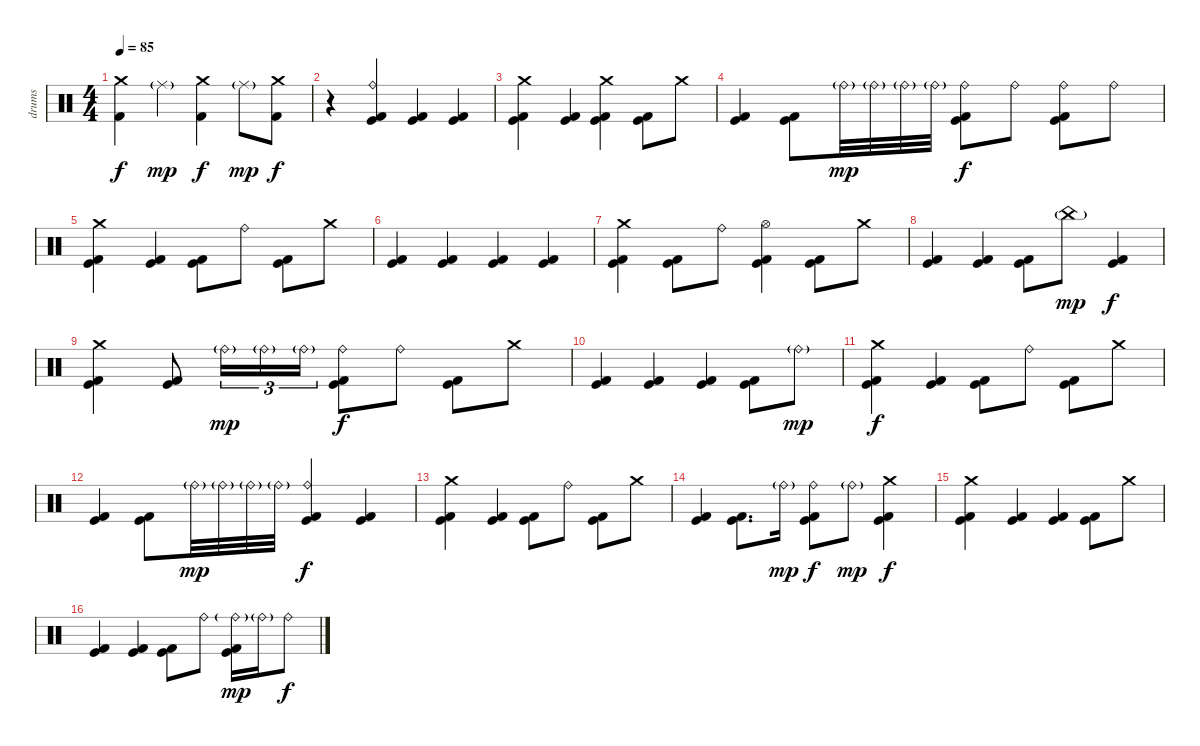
\track ("drums" "drums") {instrument percussion}
\staff {score}
\articulation defaults
\ts (4 4)
\tempo 85
\clef neutral
\ks c
("Crash medium (hit)" "Kick (hit) 2").4{dy f} "Ride (middle)"{g}.4{dy mp} ("Crash medium (hit)" "Kick (hit) 2").4{dy f} "Ride (middle)"{g}.8{dy mp} ("Crash medium (hit)" "Kick (hit) 2").8{dy f} |
r.4 ("Ride (bell)" "Kick (hit)" "Kick (hit) 2").4 ("Kick (hit)" "Kick (hit) 2").4 ("Kick (hit)" "Kick (hit) 2").4 |
("Crash medium (hit)" "Kick (hit)" "Kick (hit) 2").4 ("Kick (hit)" "Kick (hit) 2").4 ("Crash medium (hit)" "Kick (hit)" "Kick (hit) 2").4 ("Kick (hit)" "Kick (hit) 2").8 "Crash medium (hit)".8 |
("Kick (hit)" "Kick (hit) 2").4 ("Kick (hit)" "Kick (hit) 2").8 "Ride (bell)"{g}.32{dy mp} "Ride (bell)"{g}.32 "Ride (bell)"{g}.32 "Ride (bell)"{g}.32 ("Ride (bell)" "Kick (hit)" "Kick (hit) 2").8{dy f} "Ride (bell)".8 ("Ride (bell)" "Kick (hit)" "Kick (hit) 2").8 "Ride (bell)".8 |
("Crash medium (hit)" "Kick (hit)" "Kick (hit) 2").4 ("Kick (hit)" "Kick (hit) 2").4 ("Kick (hit)" "Kick (hit) 2").8 "Ride (bell)".8 ("Kick (hit)" "Kick (hit) 2").8 "Crash medium (hit)".8 |
("Kick (hit)" "Kick (hit) 2").4 ("Kick (hit)" "Kick (hit) 2").4 ("Kick (hit)" "Kick (hit) 2").4 ("Kick (hit)" "Kick (hit) 2").4 |
("Crash medium (hit)" "Kick (hit)" "Kick (hit) 2").4 ("Kick (hit)" "Kick (hit) 2").8 "Ride (bell)".8 ("Hi-Hat (open)" "Kick (hit)" "Kick (hit) 2").4 ("Kick (hit)" "Kick (hit) 2").8 "Crash medium (hit)".8 |
("Kick (hit)" "Kick (hit) 2").4 ("Kick (hit)" "Kick (hit) 2").4 ("Kick (hit)" "Kick (hit) 2").8 "China (hit)"{g}.8{dy mp} ("Kick (hit)" "Kick (hit) 2").4{dy f} |
("Crash medium (hit)" "Kick (hit)" "Kick (hit) 2").4 ("Kick (hit)" "Kick (hit) 2").8{volume 6} "Ride (bell)"{g}.16{tu (3 2) dy mp} "Ride (bell)"{g}.16{tu (3 2)} "Ride (bell)"{g}.16{tu (3 2)} ("Ride (bell)" "Kick (hit)" "Kick (hit) 2").8{dy f} "Ride (bell)".8 ("Kick (hit)" "Kick (hit) 2").8 "Crash medium (hit)".8 |
("Kick (hit)" "Kick (hit) 2").4 ("Kick (hit)" "Kick (hit) 2").4 ("Kick (hit)" "Kick (hit) 2").4 ("Kick (hit)" "Kick (hit) 2").8 "Ride (bell)"{g}.8{dy mp} |
("Crash medium (hit)" "Kick (hit)" "Kick (hit) 2").4{dy f} ("Kick (hit)" "Kick (hit) 2").4 ("Kick (hit)" "Kick (hit) 2").8 "Ride (bell)".8 ("Kick (hit)" "Kick (hit) 2").8 "Crash medium (hit)".8 |
("Kick (hit)" "Kick (hit) 2").4 ("Kick (hit)" "Kick (hit) 2").8 "Ride (bell)"{g}.32{dy mp} "Ride (bell)"{g}.32 "Ride (bell)"{g}.32 "Ride (bell)"{g}.32 ("Ride (bell)" "Kick (hit)" "Kick (hit) 2").4{dy f} ("Kick (hit)" "Kick (hit) 2").4 |
("Crash medium (hit)" "Kick (hit)" "Kick (hit) 2").4{volume 4} ("Kick (hit)" "Kick (hit) 2").4 ("Kick (hit)" "Kick (hit) 2").8{volume 2} "Ride (bell)".8 ("Kick (hit)" "Kick (hit) 2").8 "Crash medium (hit)".8 |
("Kick (hit)" "Kick (hit) 2").4 ("Kick (hit)" "Kick (hit) 2").8{d} "Ride (bell)"{g}.16{dy mp} ("Ride (bell)" "Kick (hit)" "Kick (hit) 2").8{dy f} "Ride (bell)"{g}.8{dy mp} ("Crash medium (hit)" "Kick (hit)" "Kick (hit) 2").4{dy f} |
("Crash medium (hit)" "Kick (hit)" "Kick (hit) 2").4 ("Kick (hit)" "Kick (hit) 2").4 ("Kick (hit)" "Kick (hit) 2").4 ("Kick (hit)" "Kick (hit) 2").8 "Crash medium (hit)".8 |
("Kick (hit)" "Kick (hit) 2").4 ("Kick (hit)" "Kick (hit) 2").4 ("Kick (hit)" "Kick (hit) 2").8 "Ride (bell)".8 ("Ride (bell)"{g} "Kick (hit)" "Kick (hit) 2").16{dy mp} "Ride (bell)"{g}.16 "Ride (bell)".8{dy f}
